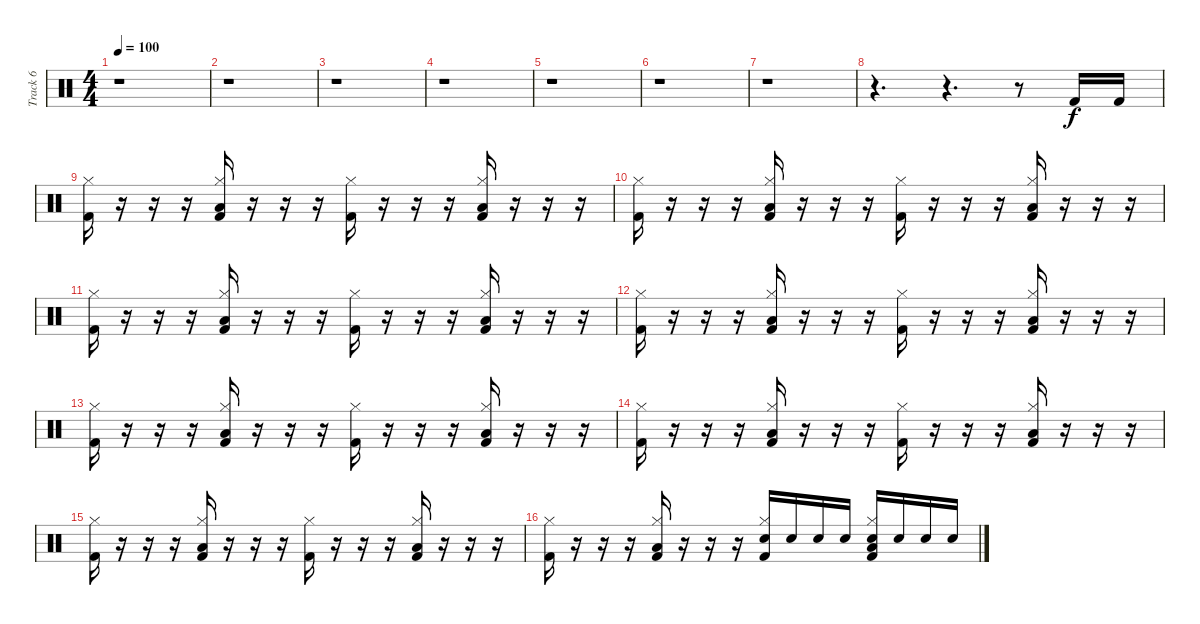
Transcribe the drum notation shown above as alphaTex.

\track ("Track 6" "Track 6") {instrument percussion}
\staff {score}
\articulation defaults
\ts (4 4)
\tempo 100
\clef neutral
\ks c
r.1{dy f} |
r.1 |
r.1 |
r.1 |
r.1 |
r.1 |
r.1 |
r.4{d} r.4{d} r.8 "Kick (hit) 2".16 "Kick (hit) 2".16 |
("Hi-Hat (closed)" "Kick (hit) 2").16 r.16 r.16 r.16 ("Hi-Hat (closed)" "Kick (hit) 2" "Low Floor Tom (hit)").16 r.16 r.16 r.16 ("Hi-Hat (closed)" "Kick (hit) 2").16 r.16 r.16 r.16 ("Hi-Hat (closed)" "Kick (hit) 2" "Low Floor Tom (hit)").16 r.16 r.16 r.16 |
("Hi-Hat (closed)" "Kick (hit) 2").16 r.16 r.16 r.16 ("Hi-Hat (closed)" "Kick (hit) 2" "Low Floor Tom (hit)").16 r.16 r.16 r.16 ("Hi-Hat (closed)" "Kick (hit) 2").16 r.16 r.16 r.16 ("Hi-Hat (closed)" "Kick (hit) 2" "Low Floor Tom (hit)").16 r.16 r.16 r.16 |
("Hi-Hat (closed)" "Kick (hit) 2").16 r.16 r.16 r.16 ("Hi-Hat (closed)" "Kick (hit) 2" "Low Floor Tom (hit)").16 r.16 r.16 r.16 ("Hi-Hat (closed)" "Kick (hit) 2").16 r.16 r.16 r.16 ("Hi-Hat (closed)" "Kick (hit) 2" "Low Floor Tom (hit)").16 r.16 r.16 r.16 |
("Hi-Hat (closed)" "Kick (hit) 2").16 r.16 r.16 r.16 ("Hi-Hat (closed)" "Kick (hit) 2" "Low Floor Tom (hit)").16 r.16 r.16 r.16 ("Hi-Hat (closed)" "Kick (hit) 2").16 r.16 r.16 r.16 ("Hi-Hat (closed)" "Kick (hit) 2" "Low Floor Tom (hit)").16 r.16 r.16 r.16 |
("Hi-Hat (closed)" "Kick (hit) 2").16 r.16 r.16 r.16 ("Hi-Hat (closed)" "Kick (hit) 2" "Low Floor Tom (hit)").16 r.16 r.16 r.16 ("Hi-Hat (closed)" "Kick (hit) 2").16 r.16 r.16 r.16 ("Hi-Hat (closed)" "Kick (hit) 2" "Low Floor Tom (hit)").16 r.16 r.16 r.16 |
("Hi-Hat (closed)" "Kick (hit) 2").16 r.16 r.16 r.16 ("Hi-Hat (closed)" "Kick (hit) 2" "Low Floor Tom (hit)").16 r.16 r.16 r.16 ("Hi-Hat (closed)" "Kick (hit) 2").16 r.16 r.16 r.16 ("Hi-Hat (closed)" "Kick (hit) 2" "Low Floor Tom (hit)").16 r.16 r.16 r.16 |
("Hi-Hat (closed)" "Kick (hit) 2").16 r.16 r.16 r.16 ("Hi-Hat (closed)" "Kick (hit) 2" "Low Floor Tom (hit)").16 r.16 r.16 r.16 ("Hi-Hat (closed)" "Kick (hit) 2").16 r.16 r.16 r.16 ("Hi-Hat (closed)" "Kick (hit) 2" "Low Floor Tom (hit)").16 r.16 r.16 r.16 |
("Hi-Hat (closed)" "Kick (hit) 2").16 r.16 r.16 r.16 ("Hi-Hat (closed)" "Kick (hit) 2" "Low Floor Tom (hit)").16 r.16 r.16 r.16 ("Hi-Hat (closed)" "Kick (hit) 2" "Snare (hit) 2").16 "Snare (hit) 2".16 "Snare (hit) 2".16 "Snare (hit) 2".16 ("Hi-Hat (closed)" "Kick (hit) 2" "Low Floor Tom (hit)" "Snare (hit) 2").16 "Snare (hit) 2".16 "Snare (hit) 2".16 "Snare (hit) 2".16
